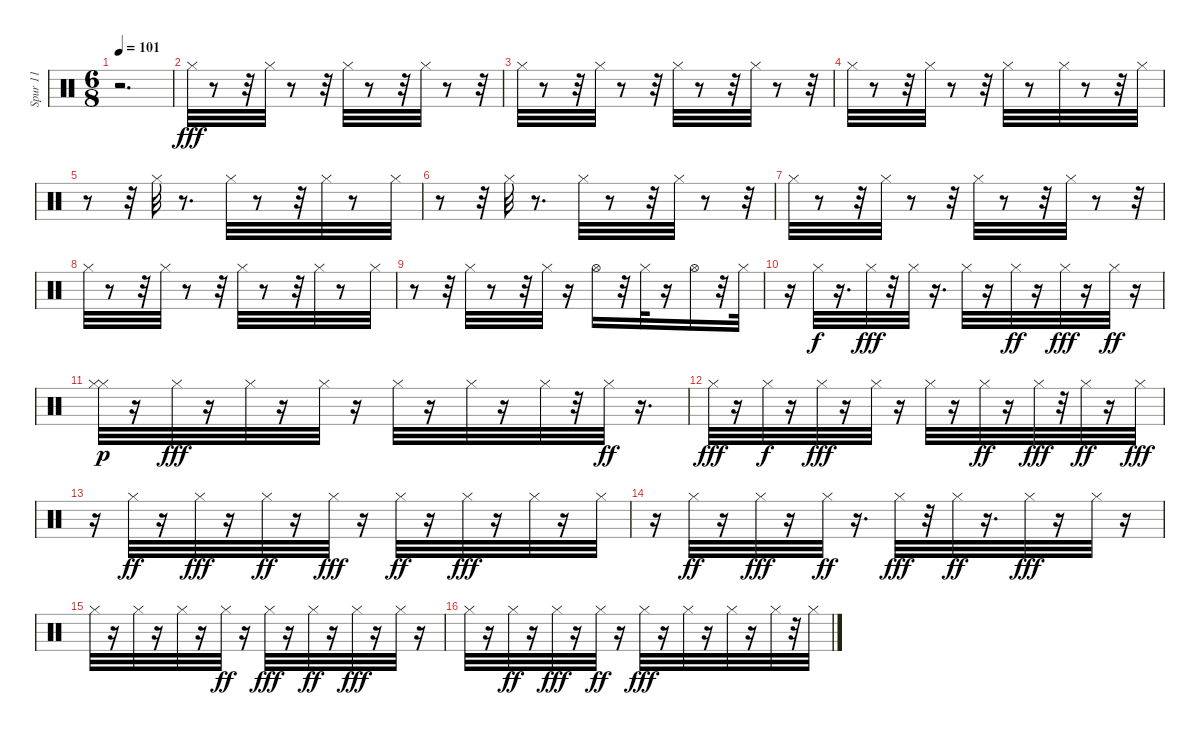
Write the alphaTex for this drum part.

\track ("Spur 11" "Spur 11") {instrument percussion}
\staff {score}
\articulation defaults
\ts (6 8)
\tempo 101
\clef neutral
\ks c
r.2{d dy fff} |
"Hi-Hat (closed)".32 r.8 r.32 "Hi-Hat (closed)".32 r.8 r.32 "Hi-Hat (closed)".32 r.8 r.32 "Hi-Hat (closed)".32 r.8 r.32 |
"Hi-Hat (closed)".32 r.8 r.32 "Hi-Hat (closed)".32 r.8 r.32 "Hi-Hat (closed)".32 r.8 r.32 "Hi-Hat (closed)".32 r.8 r.32 |
"Hi-Hat (closed)".32 r.8 r.32 "Hi-Hat (closed)".32 r.8 r.32 "Hi-Hat (closed)".32 r.8 "Hi-Hat (closed)".32 r.8 r.32 "Hi-Hat (closed)".32 |
r.8 r.32 "Hi-Hat (closed)".32 r.8{d} "Hi-Hat (closed)".32 r.8 r.32 "Hi-Hat (closed)".32 r.8 "Hi-Hat (closed)".32 |
r.8 r.32 "Hi-Hat (closed)".32 r.8{d} "Hi-Hat (closed)".32 r.8 r.32 "Hi-Hat (closed)".32 r.8 r.32 |
"Hi-Hat (closed)".32 r.8 r.32 "Hi-Hat (closed)".32 r.8 r.32 "Hi-Hat (closed)".32 r.8 r.32 "Hi-Hat (closed)".32 r.8 r.32 |
"Hi-Hat (closed)".32 r.8 r.32 "Hi-Hat (closed)".32 r.8 r.32 "Hi-Hat (closed)".32 r.8 r.32 "Hi-Hat (closed)".32 r.8 "Hi-Hat (closed)".32 |
r.8 r.32 "Hi-Hat (closed)".32 r.8 r.32 "Hi-Hat (closed)".32 r.16 "Hi-Hat (open)".16 r.32 "Hi-Hat (closed)".32 r.16 "Hi-Hat (open)".16 r.32 "Hi-Hat (closed)".32 |
r.16 "Hi-Hat (closed)".32{dy f} r.16{d} "Hi-Hat (closed)".32{dy fff} r.32 "Hi-Hat (closed)".32 r.16{d} "Hi-Hat (closed)".32 r.16 "Hi-Hat (closed)".32{dy ff} r.16 "Hi-Hat (closed)".32{dy fff} r.16 "Hi-Hat (closed)".32{dy ff} r.16 |
("Hi-Hat (closed)" "Hi-Hat (closed)").32{dy p} r.16 "Hi-Hat (closed)".32{dy fff} r.16 "Hi-Hat (closed)".32 r.16 "Hi-Hat (closed)".32 r.16 "Hi-Hat (closed)".32 r.16 "Hi-Hat (closed)".32 r.16 "Hi-Hat (closed)".32 r.32 "Hi-Hat (closed)".32{dy ff} r.16{d} |
"Hi-Hat (closed)".32{dy fff} r.16 "Hi-Hat (closed)".32{dy f} r.16 "Hi-Hat (closed)".32{dy fff} r.16 "Hi-Hat (closed)".32 r.16 "Hi-Hat (closed)".32 r.16 "Hi-Hat (closed)".32{dy ff} r.16 "Hi-Hat (closed)".32{dy fff} r.32 "Hi-Hat (closed)".32{dy ff} r.16 "Hi-Hat (closed)".32{dy fff} |
r.16 "Hi-Hat (closed)".32{dy ff} r.16 "Hi-Hat (closed)".32{dy fff} r.16 "Hi-Hat (closed)".32{dy ff} r.16 "Hi-Hat (closed)".32{dy fff} r.16 "Hi-Hat (closed)".32{dy ff} r.16 "Hi-Hat (closed)".32{dy fff} r.16 "Hi-Hat (closed)".32 r.16 "Hi-Hat (closed)".32 |
r.16 "Hi-Hat (closed)".32{dy ff} r.16 "Hi-Hat (closed)".32{dy fff} r.16 "Hi-Hat (closed)".32{dy ff} r.16{d} "Hi-Hat (closed)".32{dy fff} r.32 "Hi-Hat (closed)".32{dy ff} r.16{d} "Hi-Hat (closed)".32{dy fff} r.16 "Hi-Hat (closed)".32 r.16 |
"Hi-Hat (closed)".32 r.16 "Hi-Hat (closed)".32 r.16 "Hi-Hat (closed)".32 r.16 "Hi-Hat (closed)".32{dy ff} r.16 "Hi-Hat (closed)".32{dy fff} r.16 "Hi-Hat (closed)".32{dy ff} r.16 "Hi-Hat (closed)".32{dy fff} r.16 "Hi-Hat (closed)".32 r.16 |
"Hi-Hat (closed)".32 r.16 "Hi-Hat (closed)".32{dy ff} r.16 "Hi-Hat (closed)".32{dy fff} r.16 "Hi-Hat (closed)".32{dy ff} r.16 "Hi-Hat (closed)".32{dy fff} r.16 "Hi-Hat (closed)".32 r.16 "Hi-Hat (closed)".32 r.16 "Hi-Hat (closed)".32 r.32 "Hi-Hat (closed)".32
